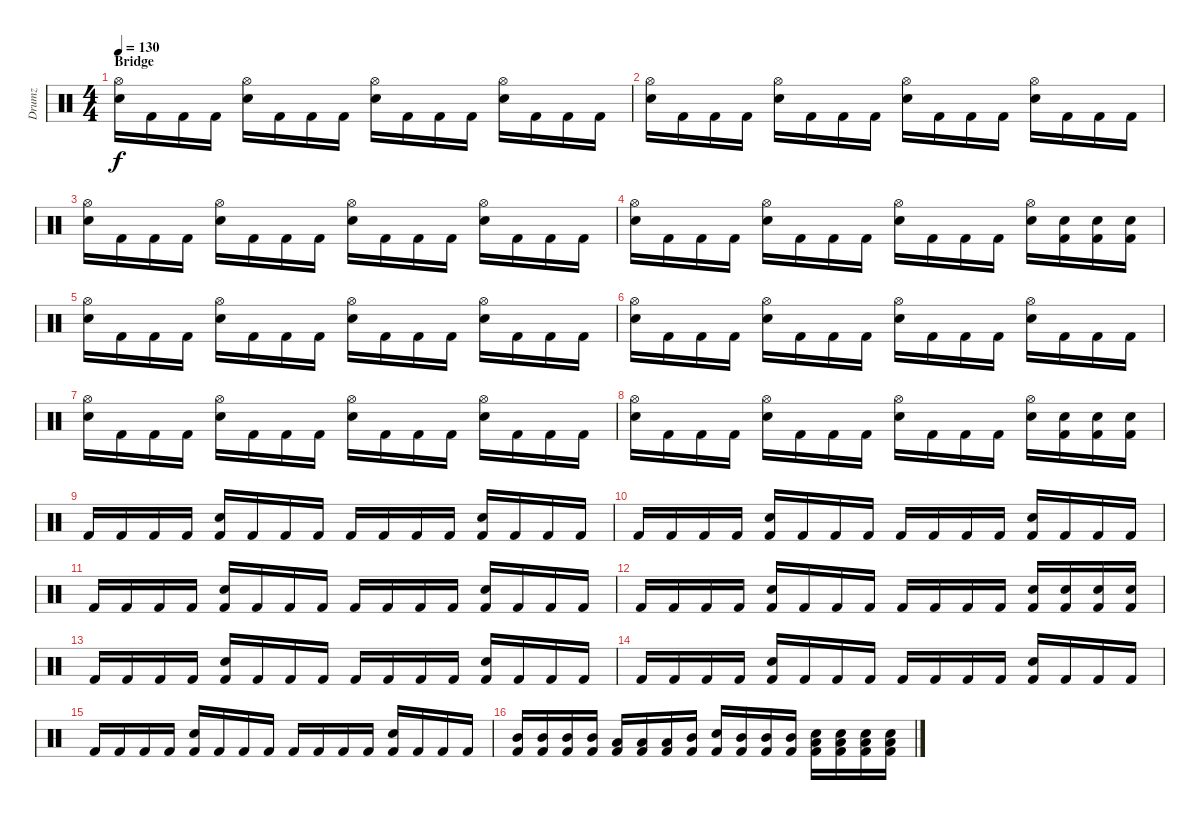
\track ("Drumz" "Drumz") {instrument percussion}
\staff {score}
\articulation defaults
\ts (4 4)
\section ("" "Bridge")
\tempo 130
\clef neutral
\ks c
("Hi-Hat (open)" "Snare (hit) 2").16{dy f} "Kick (hit) 2".16 "Kick (hit) 2".16 "Kick (hit) 2".16 ("Hi-Hat (open)" "Snare (hit) 2").16 "Kick (hit) 2".16 "Kick (hit) 2".16 "Kick (hit) 2".16 ("Hi-Hat (open)" "Snare (hit) 2").16 "Kick (hit) 2".16 "Kick (hit) 2".16 "Kick (hit) 2".16 ("Hi-Hat (open)" "Snare (hit) 2").16 "Kick (hit) 2".16 "Kick (hit) 2".16 "Kick (hit) 2".16 |
("Hi-Hat (open)" "Snare (hit) 2").16 "Kick (hit) 2".16 "Kick (hit) 2".16 "Kick (hit) 2".16 ("Hi-Hat (open)" "Snare (hit) 2").16 "Kick (hit) 2".16 "Kick (hit) 2".16 "Kick (hit) 2".16 ("Hi-Hat (open)" "Snare (hit) 2").16 "Kick (hit) 2".16 "Kick (hit) 2".16 "Kick (hit) 2".16 ("Hi-Hat (open)" "Snare (hit) 2").16 "Kick (hit) 2".16 "Kick (hit) 2".16 "Kick (hit) 2".16 |
("Hi-Hat (open)" "Snare (hit) 2").16 "Kick (hit) 2".16 "Kick (hit) 2".16 "Kick (hit) 2".16 ("Hi-Hat (open)" "Snare (hit) 2").16 "Kick (hit) 2".16 "Kick (hit) 2".16 "Kick (hit) 2".16 ("Hi-Hat (open)" "Snare (hit) 2").16 "Kick (hit) 2".16 "Kick (hit) 2".16 "Kick (hit) 2".16 ("Hi-Hat (open)" "Snare (hit) 2").16 "Kick (hit) 2".16 "Kick (hit) 2".16 "Kick (hit) 2".16 |
("Hi-Hat (open)" "Snare (hit) 2").16 "Kick (hit) 2".16 "Kick (hit) 2".16 "Kick (hit) 2".16 ("Hi-Hat (open)" "Snare (hit) 2").16 "Kick (hit) 2".16 "Kick (hit) 2".16 "Kick (hit) 2".16 ("Hi-Hat (open)" "Snare (hit) 2").16 "Kick (hit) 2".16 "Kick (hit) 2".16 "Kick (hit) 2".16 ("Hi-Hat (open)" "Snare (hit) 2").16 ("Snare (hit) 2" "Kick (hit) 2").16 ("Snare (hit) 2" "Kick (hit) 2").16 ("Snare (hit) 2" "Kick (hit) 2").16 |
("Hi-Hat (open)" "Snare (hit) 2").16 "Kick (hit) 2".16 "Kick (hit) 2".16 "Kick (hit) 2".16 ("Hi-Hat (open)" "Snare (hit) 2").16 "Kick (hit) 2".16 "Kick (hit) 2".16 "Kick (hit) 2".16 ("Hi-Hat (open)" "Snare (hit) 2").16 "Kick (hit) 2".16 "Kick (hit) 2".16 "Kick (hit) 2".16 ("Hi-Hat (open)" "Snare (hit) 2").16 "Kick (hit) 2".16 "Kick (hit) 2".16 "Kick (hit) 2".16 |
("Hi-Hat (open)" "Snare (hit) 2").16 "Kick (hit) 2".16 "Kick (hit) 2".16 "Kick (hit) 2".16 ("Hi-Hat (open)" "Snare (hit) 2").16 "Kick (hit) 2".16 "Kick (hit) 2".16 "Kick (hit) 2".16 ("Hi-Hat (open)" "Snare (hit) 2").16 "Kick (hit) 2".16 "Kick (hit) 2".16 "Kick (hit) 2".16 ("Hi-Hat (open)" "Snare (hit) 2").16 "Kick (hit) 2".16 "Kick (hit) 2".16 "Kick (hit) 2".16 |
("Hi-Hat (open)" "Snare (hit) 2").16 "Kick (hit) 2".16 "Kick (hit) 2".16 "Kick (hit) 2".16 ("Hi-Hat (open)" "Snare (hit) 2").16 "Kick (hit) 2".16 "Kick (hit) 2".16 "Kick (hit) 2".16 ("Hi-Hat (open)" "Snare (hit) 2").16 "Kick (hit) 2".16 "Kick (hit) 2".16 "Kick (hit) 2".16 ("Hi-Hat (open)" "Snare (hit) 2").16 "Kick (hit) 2".16 "Kick (hit) 2".16 "Kick (hit) 2".16 |
("Hi-Hat (open)" "Snare (hit) 2").16 "Kick (hit) 2".16 "Kick (hit) 2".16 "Kick (hit) 2".16 ("Hi-Hat (open)" "Snare (hit) 2").16 "Kick (hit) 2".16 "Kick (hit) 2".16 "Kick (hit) 2".16 ("Hi-Hat (open)" "Snare (hit) 2").16 "Kick (hit) 2".16 "Kick (hit) 2".16 "Kick (hit) 2".16 ("Hi-Hat (open)" "Snare (hit) 2").16 ("Snare (hit) 2" "Kick (hit) 2").16 ("Snare (hit) 2" "Kick (hit) 2").16 ("Snare (hit) 2" "Kick (hit) 2").16 |
"Kick (hit) 2".16 "Kick (hit) 2".16 "Kick (hit) 2".16 "Kick (hit) 2".16 ("Snare (hit) 2" "Kick (hit) 2").16 "Kick (hit) 2".16 "Kick (hit) 2".16 "Kick (hit) 2".16 "Kick (hit) 2".16 "Kick (hit) 2".16 "Kick (hit) 2".16 "Kick (hit) 2".16 ("Snare (hit) 2" "Kick (hit) 2").16 "Kick (hit) 2".16 "Kick (hit) 2".16 "Kick (hit) 2".16 |
"Kick (hit) 2".16 "Kick (hit) 2".16 "Kick (hit) 2".16 "Kick (hit) 2".16 ("Snare (hit) 2" "Kick (hit) 2").16 "Kick (hit) 2".16 "Kick (hit) 2".16 "Kick (hit) 2".16 "Kick (hit) 2".16 "Kick (hit) 2".16 "Kick (hit) 2".16 "Kick (hit) 2".16 ("Snare (hit) 2" "Kick (hit) 2").16 "Kick (hit) 2".16 "Kick (hit) 2".16 "Kick (hit) 2".16 |
"Kick (hit) 2".16 "Kick (hit) 2".16 "Kick (hit) 2".16 "Kick (hit) 2".16 ("Snare (hit) 2" "Kick (hit) 2").16 "Kick (hit) 2".16 "Kick (hit) 2".16 "Kick (hit) 2".16 "Kick (hit) 2".16 "Kick (hit) 2".16 "Kick (hit) 2".16 "Kick (hit) 2".16 ("Snare (hit) 2" "Kick (hit) 2").16 "Kick (hit) 2".16 "Kick (hit) 2".16 "Kick (hit) 2".16 |
"Kick (hit) 2".16 "Kick (hit) 2".16 "Kick (hit) 2".16 "Kick (hit) 2".16 ("Snare (hit) 2" "Kick (hit) 2").16 "Kick (hit) 2".16 "Kick (hit) 2".16 "Kick (hit) 2".16 "Kick (hit) 2".16 "Kick (hit) 2".16 "Kick (hit) 2".16 "Kick (hit) 2".16 ("Snare (hit) 2" "Kick (hit) 2").16 ("Snare (hit) 2" "Kick (hit) 2").16 ("Snare (hit) 2" "Kick (hit) 2").16 ("Snare (hit) 2" "Kick (hit) 2").16 |
"Kick (hit) 2".16 "Kick (hit) 2".16 "Kick (hit) 2".16 "Kick (hit) 2".16 ("Snare (hit) 2" "Kick (hit) 2").16 "Kick (hit) 2".16 "Kick (hit) 2".16 "Kick (hit) 2".16 "Kick (hit) 2".16 "Kick (hit) 2".16 "Kick (hit) 2".16 "Kick (hit) 2".16 ("Snare (hit) 2" "Kick (hit) 2").16 "Kick (hit) 2".16 "Kick (hit) 2".16 "Kick (hit) 2".16 |
"Kick (hit) 2".16 "Kick (hit) 2".16 "Kick (hit) 2".16 "Kick (hit) 2".16 ("Snare (hit) 2" "Kick (hit) 2").16 "Kick (hit) 2".16 "Kick (hit) 2".16 "Kick (hit) 2".16 "Kick (hit) 2".16 "Kick (hit) 2".16 "Kick (hit) 2".16 "Kick (hit) 2".16 ("Snare (hit) 2" "Kick (hit) 2").16 "Kick (hit) 2".16 "Kick (hit) 2".16 "Kick (hit) 2".16 |
"Kick (hit) 2".16 "Kick (hit) 2".16 "Kick (hit) 2".16 "Kick (hit) 2".16 ("Snare (hit) 2" "Kick (hit) 2").16 "Kick (hit) 2".16 "Kick (hit) 2".16 "Kick (hit) 2".16 "Kick (hit) 2".16 "Kick (hit) 2".16 "Kick (hit) 2".16 "Kick (hit) 2".16 ("Snare (hit) 2" "Kick (hit) 2").16 "Kick (hit) 2".16 "Kick (hit) 2".16 "Kick (hit) 2".16 |
("Mid Tom (hit)" "Kick (hit) 2").16 ("Mid Tom (hit)" "Kick (hit) 2").16 ("Mid Tom (hit)" "Kick (hit) 2").16 ("Mid Tom (hit)" "Kick (hit) 2").16 ("Low Tom (hit)" "Kick (hit) 2").16 ("Low Tom (hit)" "Kick (hit) 2").16 ("Low Tom (hit)" "Kick (hit) 2").16 ("Mid Tom (hit)" "Kick (hit) 2").16 ("Snare (hit) 2" "Kick (hit) 2").16 ("Mid Tom (hit)" "Kick (hit) 2").16 ("Mid Tom (hit)" "Kick (hit) 2").16 ("Mid Tom (hit)" "Kick (hit) 2").16 ("Low Tom (hit)" "Snare (hit) 2" "Kick (hit) 2").16 ("Low Tom (hit)" "Snare (hit) 2" "Kick (hit) 2").16 ("Low Tom (hit)" "Snare (hit) 2" "Kick (hit) 2").16 ("Low Tom (hit)" "Snare (hit) 2" "Kick (hit) 2").16
